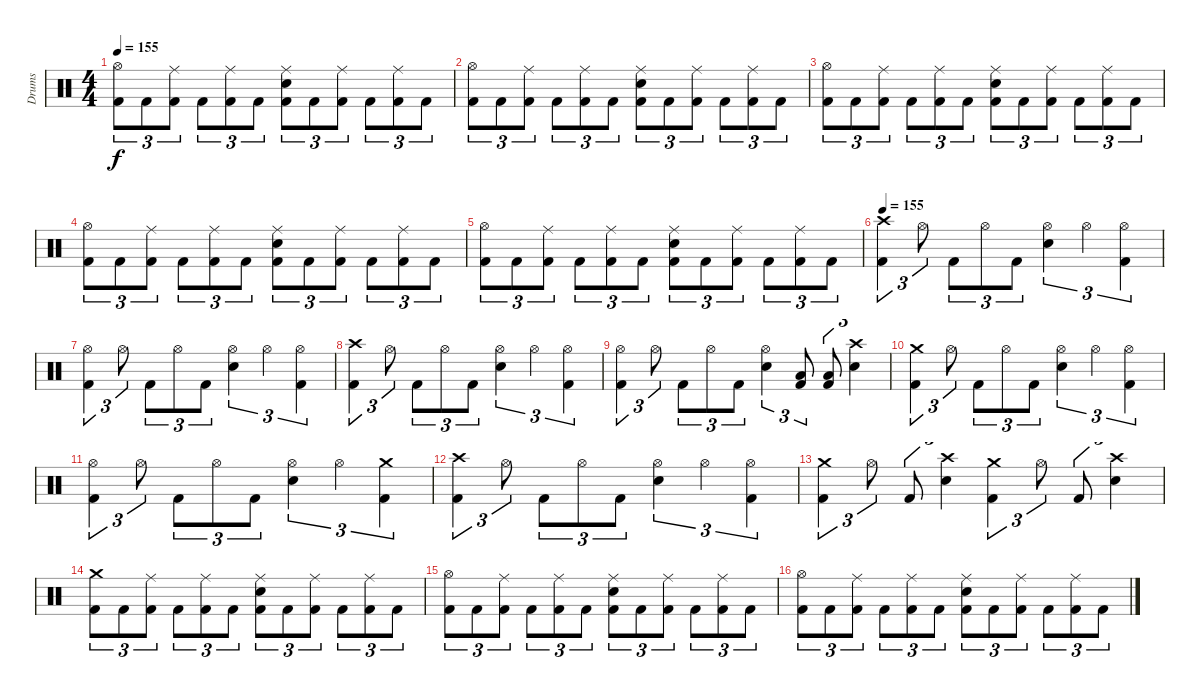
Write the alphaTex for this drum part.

\track ("Drums" "Drums") {instrument percussion}
\staff {score}
\articulation defaults
\ts (4 4)
\tempo 155
\clef neutral
\ks c
("Kick (hit) 2" "Hi-Hat (open)").8{tu (3 2) dy f} "Kick (hit) 2".8{tu (3 2)} ("Kick (hit) 2" "Ride (middle)").8{tu (3 2)} "Kick (hit) 2".8{tu (3 2)} ("Kick (hit) 2" "Ride (middle)").8{tu (3 2)} "Kick (hit) 2".8{tu (3 2)} ("Kick (hit) 2" "Electric Snare (hit)" "Ride (middle)").8{tu (3 2)} "Kick (hit) 2".8{tu (3 2)} ("Kick (hit) 2" "Ride (middle)").8{tu (3 2)} "Kick (hit) 2".8{tu (3 2)} ("Kick (hit) 2" "Ride (middle)").8{tu (3 2)} "Kick (hit) 2".8{tu (3 2)} |
("Kick (hit) 2" "Hi-Hat (open)").8{tu (3 2)} "Kick (hit) 2".8{tu (3 2)} ("Kick (hit) 2" "Ride (middle)").8{tu (3 2)} "Kick (hit) 2".8{tu (3 2)} ("Kick (hit) 2" "Ride (middle)").8{tu (3 2)} "Kick (hit) 2".8{tu (3 2)} ("Kick (hit) 2" "Electric Snare (hit)" "Ride (middle)").8{tu (3 2)} "Kick (hit) 2".8{tu (3 2)} ("Kick (hit) 2" "Ride (middle)").8{tu (3 2)} "Kick (hit) 2".8{tu (3 2)} ("Kick (hit) 2" "Ride (middle)").8{tu (3 2)} "Kick (hit) 2".8{tu (3 2)} |
("Kick (hit) 2" "Hi-Hat (open)").8{tu (3 2)} "Kick (hit) 2".8{tu (3 2)} ("Kick (hit) 2" "Ride (middle)").8{tu (3 2)} "Kick (hit) 2".8{tu (3 2)} ("Kick (hit) 2" "Ride (middle)").8{tu (3 2)} "Kick (hit) 2".8{tu (3 2)} ("Kick (hit) 2" "Electric Snare (hit)" "Ride (middle)").8{tu (3 2)} "Kick (hit) 2".8{tu (3 2)} ("Kick (hit) 2" "Ride (middle)").8{tu (3 2)} "Kick (hit) 2".8{tu (3 2)} ("Kick (hit) 2" "Ride (middle)").8{tu (3 2)} "Kick (hit) 2".8{tu (3 2)} |
("Kick (hit) 2" "Hi-Hat (open)").8{tu (3 2)} "Kick (hit) 2".8{tu (3 2)} ("Kick (hit) 2" "Ride (middle)").8{tu (3 2)} "Kick (hit) 2".8{tu (3 2)} ("Kick (hit) 2" "Ride (middle)").8{tu (3 2)} "Kick (hit) 2".8{tu (3 2)} ("Kick (hit) 2" "Electric Snare (hit)" "Ride (middle)").8{tu (3 2)} "Kick (hit) 2".8{tu (3 2)} ("Kick (hit) 2" "Ride (middle)").8{tu (3 2)} "Kick (hit) 2".8{tu (3 2)} ("Kick (hit) 2" "Ride (middle)").8{tu (3 2)} "Kick (hit) 2".8{tu (3 2)} |
("Kick (hit) 2" "Hi-Hat (open)").8{tu (3 2)} "Kick (hit) 2".8{tu (3 2)} ("Kick (hit) 2" "Ride (middle)").8{tu (3 2)} "Kick (hit) 2".8{tu (3 2)} ("Kick (hit) 2" "Ride (middle)").8{tu (3 2)} "Kick (hit) 2".8{tu (3 2)} ("Kick (hit) 2" "Electric Snare (hit)" "Ride (middle)").8{tu (3 2)} "Kick (hit) 2".8{tu (3 2)} ("Kick (hit) 2" "Ride (middle)").8{tu (3 2)} "Kick (hit) 2".8{tu (3 2)} ("Kick (hit) 2" "Ride (middle)").8{tu (3 2)} "Kick (hit) 2".8{tu (3 2)} |
\tempo 155
("Kick (hit) 2" "Crash high (hit)").4{tu (3 2)} "Hi-Hat (open)".8{tu (3 2)} "Kick (hit) 2".8{tu (3 2)} "Hi-Hat (open)".8{tu (3 2)} "Kick (hit) 2".8{tu (3 2)} ("Electric Snare (hit)" "Hi-Hat (open)").4{tu (3 2)} "Hi-Hat (open)".4{tu (3 2)} ("Kick (hit) 2" "Hi-Hat (open)").4{tu (3 2)} |
("Kick (hit) 2" "Hi-Hat (open)").4{tu (3 2)} "Hi-Hat (open)".8{tu (3 2)} "Kick (hit) 2".8{tu (3 2)} "Hi-Hat (open)".8{tu (3 2)} "Kick (hit) 2".8{tu (3 2)} ("Electric Snare (hit)" "Hi-Hat (open)").4{tu (3 2)} "Hi-Hat (open)".4{tu (3 2)} ("Kick (hit) 2" "Hi-Hat (open)").4{tu (3 2)} |
("Kick (hit) 2" "Crash high (hit)").4{tu (3 2)} "Hi-Hat (open)".8{tu (3 2)} "Kick (hit) 2".8{tu (3 2)} "Hi-Hat (open)".8{tu (3 2)} "Kick (hit) 2".8{tu (3 2)} ("Electric Snare (hit)" "Hi-Hat (open)").4{tu (3 2)} "Hi-Hat (open)".4{tu (3 2)} ("Kick (hit) 2" "Hi-Hat (open)").4{tu (3 2)} |
("Kick (hit) 2" "Hi-Hat (open)").4{tu (3 2)} "Hi-Hat (open)".8{tu (3 2)} "Kick (hit) 2".8{tu (3 2)} "Hi-Hat (open)".8{tu (3 2)} "Kick (hit) 2".8{tu (3 2)} ("Electric Snare (hit)" "Hi-Hat (open)").4{tu (3 2)} ("Kick (hit) 2" "Low Tom (hit)").8{tu (3 2)} ("Kick (hit) 2" "Low Tom (hit)").8{tu (3 2)} ("Electric Snare (hit)" "Crash high (hit)").4{tu (3 2)} |
("Kick (hit) 2" "Crash medium (hit)").4{tu (3 2)} "Hi-Hat (open)".8{tu (3 2)} "Kick (hit) 2".8{tu (3 2)} "Hi-Hat (open)".8{tu (3 2)} "Kick (hit) 2".8{tu (3 2)} ("Electric Snare (hit)" "Hi-Hat (open)").4{tu (3 2)} "Hi-Hat (open)".4{tu (3 2)} ("Kick (hit) 2" "Hi-Hat (open)").4{tu (3 2)} |
("Kick (hit) 2" "Hi-Hat (open)").4{tu (3 2)} "Hi-Hat (open)".8{tu (3 2)} "Kick (hit) 2".8{tu (3 2)} "Hi-Hat (open)".8{tu (3 2)} "Kick (hit) 2".8{tu (3 2)} ("Electric Snare (hit)" "Hi-Hat (open)").4{tu (3 2)} "Hi-Hat (open)".4{tu (3 2)} ("Kick (hit) 2" "Crash medium (hit)").4{tu (3 2)} |
("Kick (hit) 2" "Crash high (hit)").4{tu (3 2)} "Hi-Hat (open)".8{tu (3 2)} "Kick (hit) 2".8{tu (3 2)} "Hi-Hat (open)".8{tu (3 2)} "Kick (hit) 2".8{tu (3 2)} ("Electric Snare (hit)" "Hi-Hat (open)").4{tu (3 2)} "Hi-Hat (open)".4{tu (3 2)} ("Kick (hit) 2" "Hi-Hat (open)").4{tu (3 2)} |
("Kick (hit) 2" "Crash medium (hit)").4{tu (3 2)} "Hi-Hat (open)".8{tu (3 2)} "Kick (hit) 2".8{tu (3 2)} ("Electric Snare (hit)" "Crash high (hit)").4{tu (3 2)} ("Kick (hit) 2" "Crash medium (hit)").4{tu (3 2)} "Hi-Hat (open)".8{tu (3 2)} "Kick (hit) 2".8{tu (3 2)} ("Electric Snare (hit)" "Crash high (hit)").4{tu (3 2)} |
("Kick (hit) 2" "Crash medium (hit)").8{tu (3 2)} "Kick (hit) 2".8{tu (3 2)} ("Kick (hit) 2" "Ride (middle)").8{tu (3 2)} "Kick (hit) 2".8{tu (3 2)} ("Kick (hit) 2" "Ride (middle)").8{tu (3 2)} "Kick (hit) 2".8{tu (3 2)} ("Kick (hit) 2" "Electric Snare (hit)" "Ride (middle)").8{tu (3 2)} "Kick (hit) 2".8{tu (3 2)} ("Kick (hit) 2" "Ride (middle)").8{tu (3 2)} "Kick (hit) 2".8{tu (3 2)} ("Kick (hit) 2" "Ride (middle)").8{tu (3 2)} "Kick (hit) 2".8{tu (3 2)} |
("Kick (hit) 2" "Hi-Hat (open)").8{tu (3 2)} "Kick (hit) 2".8{tu (3 2)} ("Kick (hit) 2" "Ride (middle)").8{tu (3 2)} "Kick (hit) 2".8{tu (3 2)} ("Kick (hit) 2" "Ride (middle)").8{tu (3 2)} "Kick (hit) 2".8{tu (3 2)} ("Kick (hit) 2" "Electric Snare (hit)" "Ride (middle)").8{tu (3 2)} "Kick (hit) 2".8{tu (3 2)} ("Kick (hit) 2" "Ride (middle)").8{tu (3 2)} "Kick (hit) 2".8{tu (3 2)} ("Kick (hit) 2" "Ride (middle)").8{tu (3 2)} "Kick (hit) 2".8{tu (3 2)} |
("Kick (hit) 2" "Hi-Hat (open)").8{tu (3 2)} "Kick (hit) 2".8{tu (3 2)} ("Kick (hit) 2" "Ride (middle)").8{tu (3 2)} "Kick (hit) 2".8{tu (3 2)} ("Kick (hit) 2" "Ride (middle)").8{tu (3 2)} "Kick (hit) 2".8{tu (3 2)} ("Kick (hit) 2" "Electric Snare (hit)" "Ride (middle)").8{tu (3 2)} "Kick (hit) 2".8{tu (3 2)} ("Kick (hit) 2" "Ride (middle)").8{tu (3 2)} "Kick (hit) 2".8{tu (3 2)} ("Kick (hit) 2" "Ride (middle)").8{tu (3 2)} "Kick (hit) 2".8{tu (3 2)}
